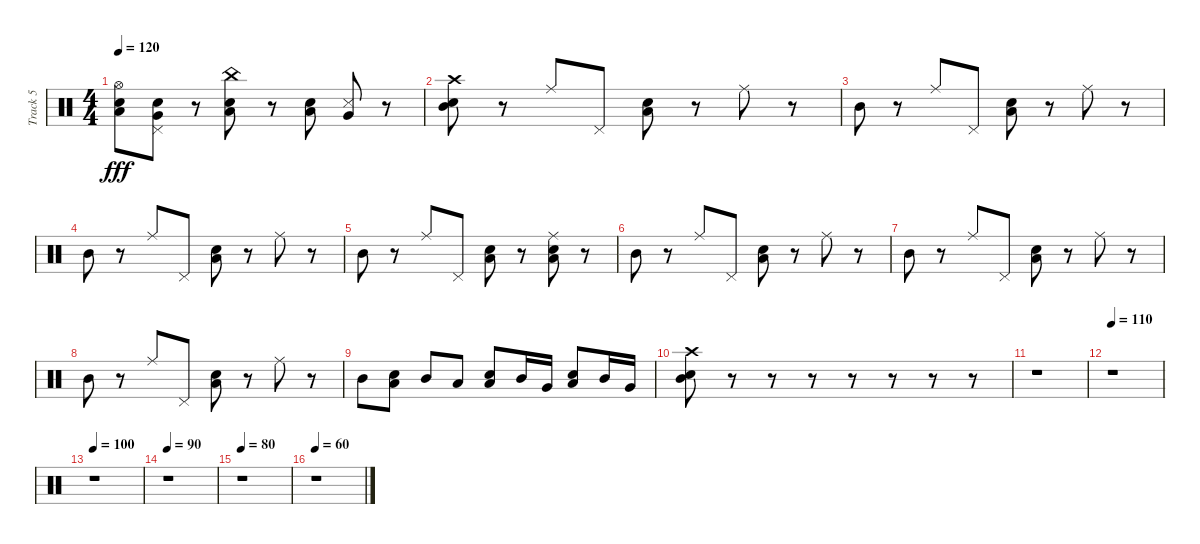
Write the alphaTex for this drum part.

\track ("Track 5" "Track 5") {instrument percussion}
\staff {score}
\articulation defaults
\ts (4 4)
\tempo 120
\clef neutral
\ks c
("Hi-Hat (open)" "Low Tom (hit)" "Electric Snare (hit)").8{dy fff} ("Pedal Hi-Hat (hit)" "Very Low Tom (hit)" "Snare (hit) 2").8 r.8 ("China (hit)" "Low Tom (hit)" "Electric Snare (hit)").8 r.8 ("Low Tom (hit)" "Electric Snare (hit)").8 ("Very Low Tom (hit)" "Snare (side stick) 3").8 r.8 |
("Crash high (hit)" "Mid Tom (hit)" "Electric Snare (hit)").8 r.8 "Ride (middle)".8 "Pedal Hi-Hat (hit)".8 ("Low Tom (hit)" "Snare (hit) 2").8 r.8 "Ride (middle)".8 r.8 |
"Mid Tom (hit)".8 r.8 "Ride (middle)".8 "Pedal Hi-Hat (hit)".8 ("Low Tom (hit)" "Snare (hit) 2").8 r.8 "Ride (middle)".8 r.8 |
"Mid Tom (hit)".8 r.8 "Ride (middle)".8 "Pedal Hi-Hat (hit)".8 ("Low Tom (hit)" "Snare (hit) 2").8 r.8 "Ride (middle)".8 r.8 |
"Mid Tom (hit)".8 r.8 "Ride (middle)".8 "Pedal Hi-Hat (hit)".8 ("Low Tom (hit)" "Snare (hit) 2").8 r.8 ("Ride (middle)" "Electric Snare (hit)" "Low Tom (hit)").8 r.8 |
"Mid Tom (hit)".8 r.8 "Ride (middle)".8 "Pedal Hi-Hat (hit)".8 ("Low Tom (hit)" "Snare (hit) 2").8 r.8 "Ride (middle)".8 r.8 |
"Mid Tom (hit)".8 r.8 "Ride (middle)".8 "Pedal Hi-Hat (hit)".8 ("Low Tom (hit)" "Snare (hit) 2").8 r.8 "Ride (middle)".8 r.8 |
"Mid Tom (hit)".8 r.8 "Ride (middle)".8 "Pedal Hi-Hat (hit)".8 ("Low Tom (hit)" "Snare (hit) 2").8 r.8 "Ride (middle)".8 r.8 |
"Mid Tom (hit)".8 ("Low Tom (hit)" "Snare (hit) 2").8 "Mid Tom (hit)".8 "Low Tom (hit)".8 ("Low Tom (hit)" "Snare (hit) 2").8 "Mid Tom (hit)".16 "Very Low Tom (hit)".16 ("Low Tom (hit)" "Electric Snare (hit)").8 "Mid Tom (hit)".16 "Very Low Tom (hit)".16 |
("Mid Tom (hit)" "Electric Snare (hit)" "Crash high (hit)").8 r.8 r.8 r.8 r.8 r.8 r.8 r.8 |
r.1 |
\tempo 110
r.1 |
\tempo 100
r.1 |
\tempo 90
r.1 |
\tempo 80
r.1 |
\tempo 60
r.1
